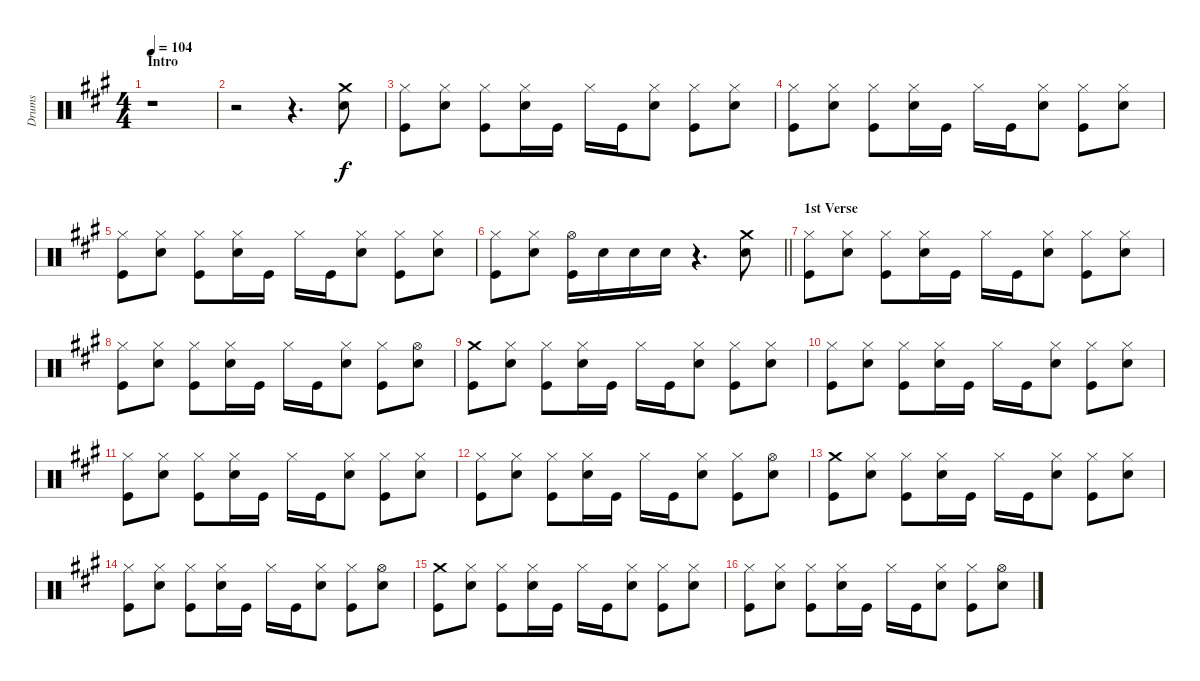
\track ("Drums" "Drums") {instrument percussion}
\staff {score}
\articulation defaults
\ts (4 4)
\section ("" "Intro")
\tempo 104
\clef neutral
\ks a
r.1{dy f} |
r.2 r.4{d} ("Crash medium (hit)" "Electric Snare (hit)").8 |
("Hi-Hat (closed)" "Kick (hit)").8 ("Hi-Hat (closed)" "Electric Snare (hit)").8 ("Hi-Hat (closed)" "Kick (hit)").8 ("Hi-Hat (closed)" "Electric Snare (hit)").16 "Kick (hit)".16 "Hi-Hat (closed)".16 "Kick (hit)".16 ("Hi-Hat (closed)" "Electric Snare (hit)").8 ("Hi-Hat (closed)" "Kick (hit)").8 ("Hi-Hat (closed)" "Electric Snare (hit)").8 |
("Hi-Hat (closed)" "Kick (hit)").8 ("Hi-Hat (closed)" "Electric Snare (hit)").8 ("Hi-Hat (closed)" "Kick (hit)").8 ("Hi-Hat (closed)" "Electric Snare (hit)").16 "Kick (hit)".16 "Hi-Hat (closed)".16 "Kick (hit)".16 ("Hi-Hat (closed)" "Electric Snare (hit)").8 ("Hi-Hat (closed)" "Kick (hit)").8 ("Hi-Hat (closed)" "Electric Snare (hit)").8 |
("Hi-Hat (closed)" "Kick (hit)").8 ("Hi-Hat (closed)" "Electric Snare (hit)").8 ("Hi-Hat (closed)" "Kick (hit)").8 ("Hi-Hat (closed)" "Electric Snare (hit)").16 "Kick (hit)".16 "Hi-Hat (closed)".16 "Kick (hit)".16 ("Hi-Hat (closed)" "Electric Snare (hit)").8 ("Hi-Hat (closed)" "Kick (hit)").8 ("Hi-Hat (closed)" "Electric Snare (hit)").8 |
\barLineRight lightlight
("Hi-Hat (closed)" "Kick (hit)").8 ("Hi-Hat (closed)" "Electric Snare (hit)").8 ("Hi-Hat (open)" "Kick (hit)").16 "Electric Snare (hit)".16 "Electric Snare (hit)".16 "Electric Snare (hit)".16 r.4{d} ("Crash medium (hit)" "Electric Snare (hit)").8 |
\section ("" "1st Verse")
("Hi-Hat (closed)" "Kick (hit)").8 ("Hi-Hat (closed)" "Electric Snare (hit)").8 ("Hi-Hat (closed)" "Kick (hit)").8 ("Hi-Hat (closed)" "Electric Snare (hit)").16 "Kick (hit)".16 "Hi-Hat (closed)".16 "Kick (hit)".16 ("Hi-Hat (closed)" "Electric Snare (hit)").8 ("Hi-Hat (closed)" "Kick (hit)").8 ("Hi-Hat (closed)" "Electric Snare (hit)").8 |
("Hi-Hat (closed)" "Kick (hit)").8 ("Hi-Hat (closed)" "Electric Snare (hit)").8 ("Hi-Hat (closed)" "Kick (hit)").8 ("Hi-Hat (closed)" "Electric Snare (hit)").16 "Kick (hit)".16 "Hi-Hat (closed)".16 "Kick (hit)".16 ("Hi-Hat (closed)" "Electric Snare (hit)").8 ("Hi-Hat (closed)" "Kick (hit)").8 ("Hi-Hat (open)" "Electric Snare (hit)").8 |
("Crash medium (hit)" "Kick (hit)").8 ("Hi-Hat (closed)" "Electric Snare (hit)").8 ("Hi-Hat (closed)" "Kick (hit)").8 ("Hi-Hat (closed)" "Electric Snare (hit)").16 "Kick (hit)".16 "Hi-Hat (closed)".16 "Kick (hit)".16 ("Hi-Hat (closed)" "Electric Snare (hit)").8 ("Hi-Hat (closed)" "Kick (hit)").8 ("Hi-Hat (closed)" "Electric Snare (hit)").8 |
("Hi-Hat (closed)" "Kick (hit)").8 ("Hi-Hat (closed)" "Electric Snare (hit)").8 ("Hi-Hat (closed)" "Kick (hit)").8 ("Hi-Hat (closed)" "Electric Snare (hit)").16 "Kick (hit)".16 "Hi-Hat (closed)".16 "Kick (hit)".16 ("Hi-Hat (closed)" "Electric Snare (hit)").8 ("Hi-Hat (closed)" "Kick (hit)").8 ("Hi-Hat (closed)" "Electric Snare (hit)").8 |
("Hi-Hat (closed)" "Kick (hit)").8 ("Hi-Hat (closed)" "Electric Snare (hit)").8 ("Hi-Hat (closed)" "Kick (hit)").8 ("Hi-Hat (closed)" "Electric Snare (hit)").16 "Kick (hit)".16 "Hi-Hat (closed)".16 "Kick (hit)".16 ("Hi-Hat (closed)" "Electric Snare (hit)").8 ("Hi-Hat (closed)" "Kick (hit)").8 ("Hi-Hat (closed)" "Electric Snare (hit)").8 |
("Hi-Hat (closed)" "Kick (hit)").8 ("Hi-Hat (closed)" "Electric Snare (hit)").8 ("Hi-Hat (closed)" "Kick (hit)").8 ("Hi-Hat (closed)" "Electric Snare (hit)").16 "Kick (hit)".16 "Hi-Hat (closed)".16 "Kick (hit)".16 ("Hi-Hat (closed)" "Electric Snare (hit)").8 ("Hi-Hat (closed)" "Kick (hit)").8 ("Hi-Hat (open)" "Electric Snare (hit)").8 |
("Crash medium (hit)" "Kick (hit)").8 ("Hi-Hat (closed)" "Electric Snare (hit)").8 ("Hi-Hat (closed)" "Kick (hit)").8 ("Hi-Hat (closed)" "Electric Snare (hit)").16 "Kick (hit)".16 "Hi-Hat (closed)".16 "Kick (hit)".16 ("Hi-Hat (closed)" "Electric Snare (hit)").8 ("Hi-Hat (closed)" "Kick (hit)").8 ("Hi-Hat (closed)" "Electric Snare (hit)").8 |
("Hi-Hat (closed)" "Kick (hit)").8 ("Hi-Hat (closed)" "Electric Snare (hit)").8 ("Hi-Hat (closed)" "Kick (hit)").8 ("Hi-Hat (closed)" "Electric Snare (hit)").16 "Kick (hit)".16 "Hi-Hat (closed)".16 "Kick (hit)".16 ("Hi-Hat (closed)" "Electric Snare (hit)").8 ("Hi-Hat (closed)" "Kick (hit)").8 ("Hi-Hat (open)" "Electric Snare (hit)").8 |
("Crash medium (hit)" "Kick (hit)").8 ("Hi-Hat (closed)" "Electric Snare (hit)").8 ("Hi-Hat (closed)" "Kick (hit)").8 ("Hi-Hat (closed)" "Electric Snare (hit)").16 "Kick (hit)".16 "Hi-Hat (closed)".16 "Kick (hit)".16 ("Hi-Hat (closed)" "Electric Snare (hit)").8 ("Hi-Hat (closed)" "Kick (hit)").8 ("Hi-Hat (closed)" "Electric Snare (hit)").8 |
("Hi-Hat (closed)" "Kick (hit)").8 ("Hi-Hat (closed)" "Electric Snare (hit)").8 ("Hi-Hat (closed)" "Kick (hit)").8 ("Hi-Hat (closed)" "Electric Snare (hit)").16 "Kick (hit)".16 "Hi-Hat (closed)".16 "Kick (hit)".16 ("Hi-Hat (closed)" "Electric Snare (hit)").8 ("Hi-Hat (closed)" "Kick (hit)").8 ("Hi-Hat (open)" "Electric Snare (hit)").8
